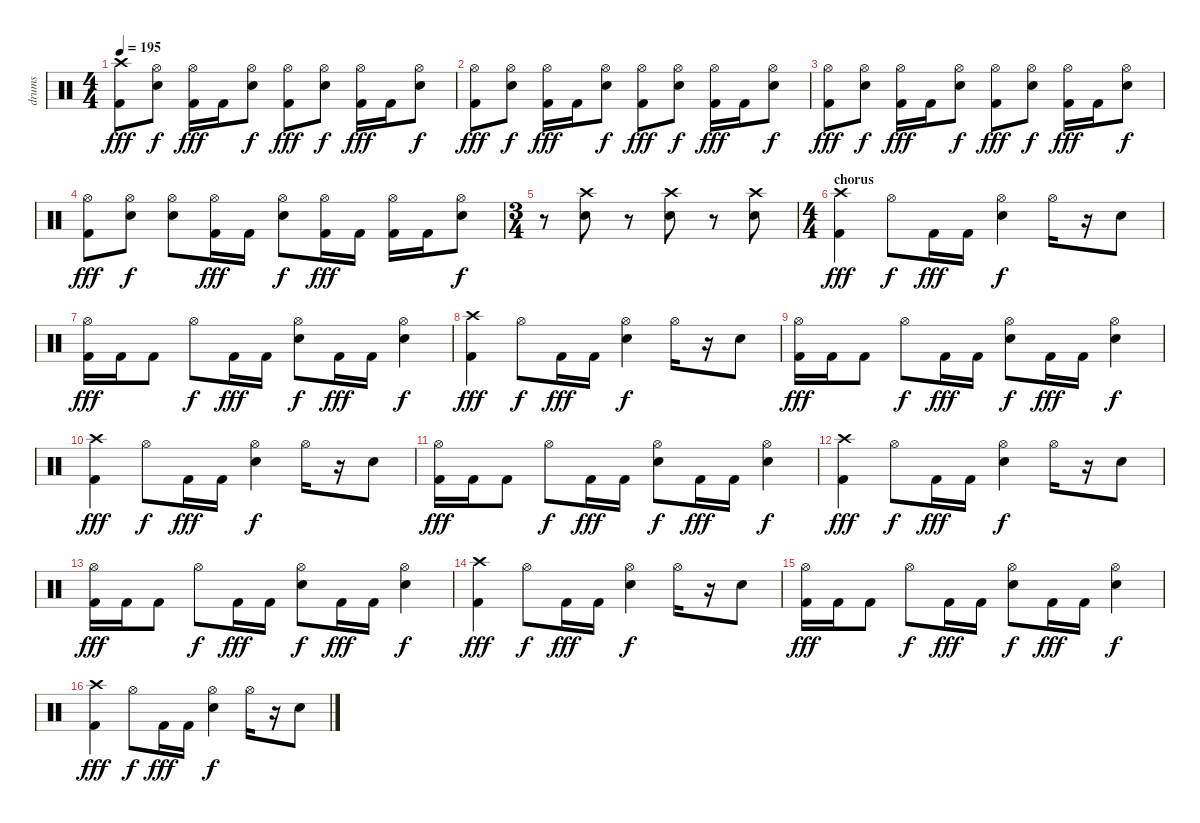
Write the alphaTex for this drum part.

\track ("drums" "drums") {instrument percussion}
\staff {score}
\articulation defaults
\ts (4 4)
\tempo 195
\clef neutral
\ks c
("Crash high (hit)" "Kick (hit) 2").8{dy fff} ("Hi-Hat (open)" "Snare (hit) 2").8{dy f} ("Hi-Hat (open)" "Kick (hit) 2").16{dy fff} "Kick (hit) 2".16 ("Hi-Hat (open)" "Snare (hit) 2").8{dy f} ("Hi-Hat (open)" "Kick (hit) 2").8{dy fff} ("Hi-Hat (open)" "Snare (hit) 2").8{dy f} ("Hi-Hat (open)" "Kick (hit) 2").16{dy fff} "Kick (hit) 2".16 ("Hi-Hat (open)" "Snare (hit) 2").8{dy f} |
("Hi-Hat (open)" "Kick (hit) 2").8{dy fff} ("Hi-Hat (open)" "Snare (hit) 2").8{dy f} ("Hi-Hat (open)" "Kick (hit) 2").16{dy fff} "Kick (hit) 2".16 ("Hi-Hat (open)" "Snare (hit) 2").8{dy f} ("Hi-Hat (open)" "Kick (hit) 2").8{dy fff} ("Hi-Hat (open)" "Snare (hit) 2").8{dy f} ("Hi-Hat (open)" "Kick (hit) 2").16{dy fff} "Kick (hit) 2".16 ("Hi-Hat (open)" "Snare (hit) 2").8{dy f} |
("Hi-Hat (open)" "Kick (hit) 2").8{dy fff} ("Hi-Hat (open)" "Snare (hit) 2").8{dy f} ("Hi-Hat (open)" "Kick (hit) 2").16{dy fff} "Kick (hit) 2".16 ("Hi-Hat (open)" "Snare (hit) 2").8{dy f} ("Hi-Hat (open)" "Kick (hit) 2").8{dy fff} ("Hi-Hat (open)" "Snare (hit) 2").8{dy f} ("Hi-Hat (open)" "Kick (hit) 2").16{dy fff} "Kick (hit) 2".16 ("Hi-Hat (open)" "Snare (hit) 2").8{dy f} |
("Hi-Hat (open)" "Kick (hit) 2").8{dy fff} ("Hi-Hat (open)" "Snare (hit) 2").8{dy f} ("Hi-Hat (open)" "Snare (hit) 2").8 ("Hi-Hat (open)" "Kick (hit) 2").16{dy fff} "Kick (hit) 2".16 ("Hi-Hat (open)" "Snare (hit) 2").8{dy f} ("Hi-Hat (open)" "Kick (hit) 2").16{dy fff} "Kick (hit) 2".16 ("Hi-Hat (open)" "Kick (hit) 2").16 "Kick (hit) 2".16 ("Hi-Hat (open)" "Snare (hit) 2").8{dy f} |
\ts (3 4)
r.8 ("Crash high (hit)" "Snare (hit) 2").8 r.8 ("Crash high (hit)" "Snare (hit) 2").8 r.8 ("Crash high (hit)" "Snare (hit) 2").8 |
\ts (4 4)
\section ("" "chorus")
("Crash high (hit)" "Kick (hit) 2").4{dy fff} "Hi-Hat (open)".8{dy f} "Kick (hit) 2".16{dy fff} "Kick (hit) 2".16 ("Hi-Hat (open)" "Snare (hit) 2").4{dy f} "Hi-Hat (open)".16 r.16 "Snare (hit) 2".8 |
("Hi-Hat (open)" "Kick (hit) 2").16{dy fff} "Kick (hit) 2".16 "Kick (hit) 2".8 "Hi-Hat (open)".8{dy f} "Kick (hit) 2".16{dy fff} "Kick (hit) 2".16 ("Hi-Hat (open)" "Snare (hit) 2").8{dy f} "Kick (hit) 2".16{dy fff} "Kick (hit) 2".16 ("Hi-Hat (open)" "Snare (hit) 2").4{dy f} |
("Crash high (hit)" "Kick (hit) 2").4{dy fff} "Hi-Hat (open)".8{dy f} "Kick (hit) 2".16{dy fff} "Kick (hit) 2".16 ("Hi-Hat (open)" "Snare (hit) 2").4{dy f} "Hi-Hat (open)".16 r.16 "Snare (hit) 2".8 |
("Hi-Hat (open)" "Kick (hit) 2").16{dy fff} "Kick (hit) 2".16 "Kick (hit) 2".8 "Hi-Hat (open)".8{dy f} "Kick (hit) 2".16{dy fff} "Kick (hit) 2".16 ("Hi-Hat (open)" "Snare (hit) 2").8{dy f} "Kick (hit) 2".16{dy fff} "Kick (hit) 2".16 ("Hi-Hat (open)" "Snare (hit) 2").4{dy f} |
("Crash high (hit)" "Kick (hit) 2").4{dy fff} "Hi-Hat (open)".8{dy f} "Kick (hit) 2".16{dy fff} "Kick (hit) 2".16 ("Hi-Hat (open)" "Snare (hit) 2").4{dy f} "Hi-Hat (open)".16 r.16 "Snare (hit) 2".8 |
("Hi-Hat (open)" "Kick (hit) 2").16{dy fff} "Kick (hit) 2".16 "Kick (hit) 2".8 "Hi-Hat (open)".8{dy f} "Kick (hit) 2".16{dy fff} "Kick (hit) 2".16 ("Hi-Hat (open)" "Snare (hit) 2").8{dy f} "Kick (hit) 2".16{dy fff} "Kick (hit) 2".16 ("Hi-Hat (open)" "Snare (hit) 2").4{dy f} |
("Crash high (hit)" "Kick (hit) 2").4{dy fff} "Hi-Hat (open)".8{dy f} "Kick (hit) 2".16{dy fff} "Kick (hit) 2".16 ("Hi-Hat (open)" "Snare (hit) 2").4{dy f} "Hi-Hat (open)".16 r.16 "Snare (hit) 2".8 |
("Hi-Hat (open)" "Kick (hit) 2").16{dy fff} "Kick (hit) 2".16 "Kick (hit) 2".8 "Hi-Hat (open)".8{dy f} "Kick (hit) 2".16{dy fff} "Kick (hit) 2".16 ("Hi-Hat (open)" "Snare (hit) 2").8{dy f} "Kick (hit) 2".16{dy fff} "Kick (hit) 2".16 ("Hi-Hat (open)" "Snare (hit) 2").4{dy f} |
("Crash high (hit)" "Kick (hit) 2").4{dy fff} "Hi-Hat (open)".8{dy f} "Kick (hit) 2".16{dy fff} "Kick (hit) 2".16 ("Hi-Hat (open)" "Snare (hit) 2").4{dy f} "Hi-Hat (open)".16 r.16 "Snare (hit) 2".8 |
("Hi-Hat (open)" "Kick (hit) 2").16{dy fff} "Kick (hit) 2".16 "Kick (hit) 2".8 "Hi-Hat (open)".8{dy f} "Kick (hit) 2".16{dy fff} "Kick (hit) 2".16 ("Hi-Hat (open)" "Snare (hit) 2").8{dy f} "Kick (hit) 2".16{dy fff} "Kick (hit) 2".16 ("Hi-Hat (open)" "Snare (hit) 2").4{dy f} |
("Crash high (hit)" "Kick (hit) 2").4{dy fff} "Hi-Hat (open)".8{dy f} "Kick (hit) 2".16{dy fff} "Kick (hit) 2".16 ("Hi-Hat (open)" "Snare (hit) 2").4{dy f} "Hi-Hat (open)".16 r.16 "Snare (hit) 2".8
